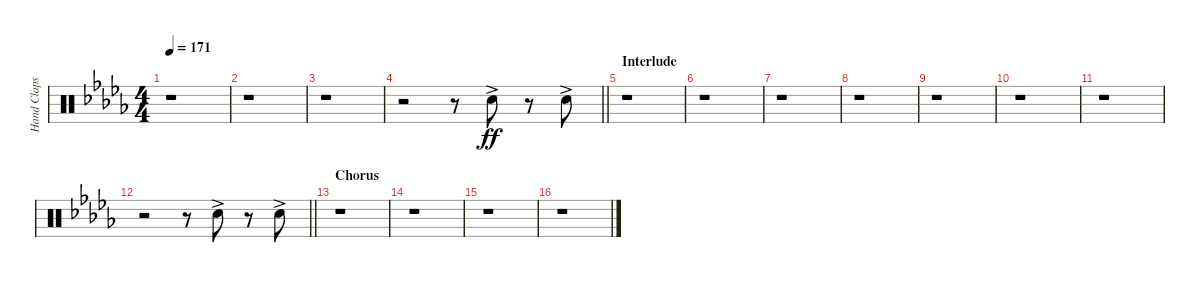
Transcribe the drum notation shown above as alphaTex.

\track ("Hand Claps" "Hand Claps") {instrument percussion}
\staff {score}
\articulation defaults
\ts (4 4)
\tempo 171
\clef neutral
\ks db
r.1{dy ff} |
r.1 |
r.1 |
\barLineRight lightlight
r.2 r.8 "Hand Clap (hit)"{ac}.8 r.8 "Hand Clap (hit)"{ac}.8 |
\section ("" "Interlude")
r.1 |
r.1 |
r.1 |
r.1 |
r.1 |
r.1 |
r.1 |
\barLineRight lightlight
r.2 r.8 "Hand Clap (hit)"{ac}.8 r.8 "Hand Clap (hit)"{ac}.8 |
\section ("" "Chorus")
r.1 |
r.1 |
r.1 |
r.1
